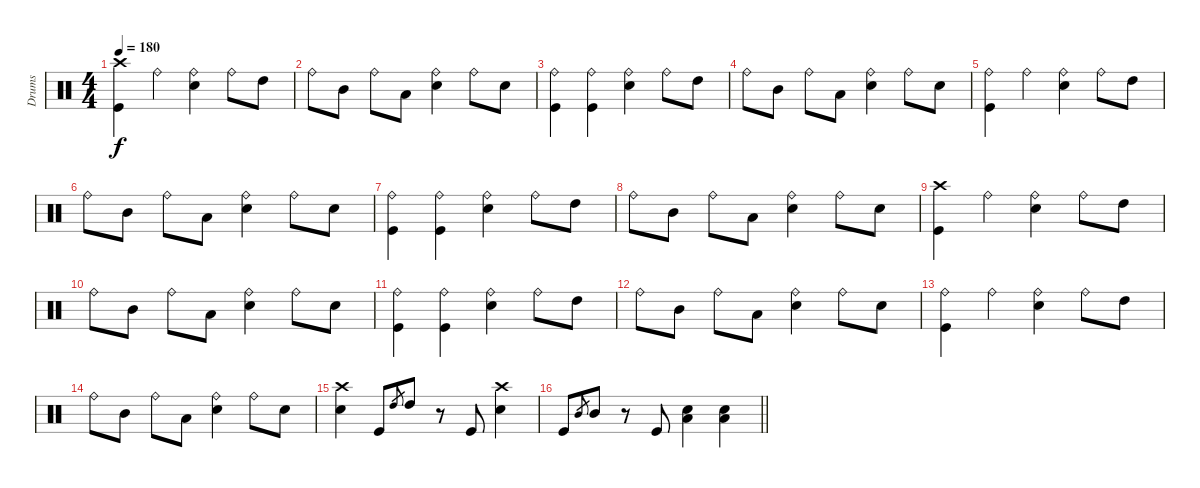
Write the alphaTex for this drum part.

\track ("Drums" "Drums") {instrument percussion}
\staff {score}
\articulation defaults
\ts (4 4)
\tempo 180
\clef neutral
\ks c
("Crash high (hit)" "Kick (hit)").4{dy f} "Ride (bell)".4 ("Ride (bell)" "Snare (hit) 2").4 "Ride (bell)".8 "High Tom (hit)".8 |
"Ride (bell)".8 "Mid Tom (hit)".8 "Ride (bell)".8 "Low Tom (hit)".8 ("Ride (bell)" "Snare (hit) 2").4 "Ride (bell)".8 "Snare (hit) 2".8 |
("Ride (bell)" "Kick (hit)").4 ("Ride (bell)" "Kick (hit)").4 ("Ride (bell)" "Snare (hit) 2").4 "Ride (bell)".8 "High Tom (hit)".8 |
"Ride (bell)".8 "Mid Tom (hit)".8 "Ride (bell)".8 "Low Tom (hit)".8 ("Ride (bell)" "Snare (hit) 2").4 "Ride (bell)".8 "Snare (hit) 2".8 |
("Ride (bell)" "Kick (hit)").4 "Ride (bell)".4 ("Ride (bell)" "Snare (hit) 2").4 "Ride (bell)".8 "High Tom (hit)".8 |
"Ride (bell)".8 "Mid Tom (hit)".8 "Ride (bell)".8 "Low Tom (hit)".8 ("Ride (bell)" "Snare (hit) 2").4 "Ride (bell)".8 "Snare (hit) 2".8 |
("Ride (bell)" "Kick (hit)").4 ("Ride (bell)" "Kick (hit)").4 ("Ride (bell)" "Snare (hit) 2").4 "Ride (bell)".8 "High Tom (hit)".8 |
"Ride (bell)".8 "Mid Tom (hit)".8 "Ride (bell)".8 "Low Tom (hit)".8 ("Ride (bell)" "Snare (hit) 2").4 "Ride (bell)".8 "Snare (hit) 2".8 |
("Crash high (hit)" "Kick (hit)").4 "Ride (bell)".4 ("Ride (bell)" "Snare (hit) 2").4 "Ride (bell)".8 "High Tom (hit)".8 |
"Ride (bell)".8 "Mid Tom (hit)".8 "Ride (bell)".8 "Low Tom (hit)".8 ("Ride (bell)" "Snare (hit) 2").4 "Ride (bell)".8 "Snare (hit) 2".8 |
("Ride (bell)" "Kick (hit)").4 ("Ride (bell)" "Kick (hit)").4 ("Ride (bell)" "Snare (hit) 2").4 "Ride (bell)".8 "High Tom (hit)".8 |
"Ride (bell)".8 "Mid Tom (hit)".8 "Ride (bell)".8 "Low Tom (hit)".8 ("Ride (bell)" "Snare (hit) 2").4 "Ride (bell)".8 "Snare (hit) 2".8 |
("Ride (bell)" "Kick (hit)").4 "Ride (bell)".4 ("Ride (bell)" "Snare (hit) 2").4 "Ride (bell)".8 "High Tom (hit)".8 |
"Ride (bell)".8 "Mid Tom (hit)".8 "Ride (bell)".8 "Low Tom (hit)".8 ("Ride (bell)" "Snare (hit) 2").4 "Ride (bell)".8 "Snare (hit) 2".8 |
("Crash high (hit)" "Snare (hit) 2").4 "Kick (hit)".8 "High Tom (hit)".8{gr} "High Tom (hit)".8 r.8 "Kick (hit)".8 ("Crash high (hit)" "Snare (hit) 2").4 |
\barLineRight lightlight "Kick (hit)".8 "Mid Tom (hit)".8{gr} "Mid Tom (hit)".8
r.8 "Kick (hit)".8 ("Low Floor Tom (hit)" "Snare (hit) 2").4 ("Low Floor Tom (hit)" "Snare (hit) 2").4
